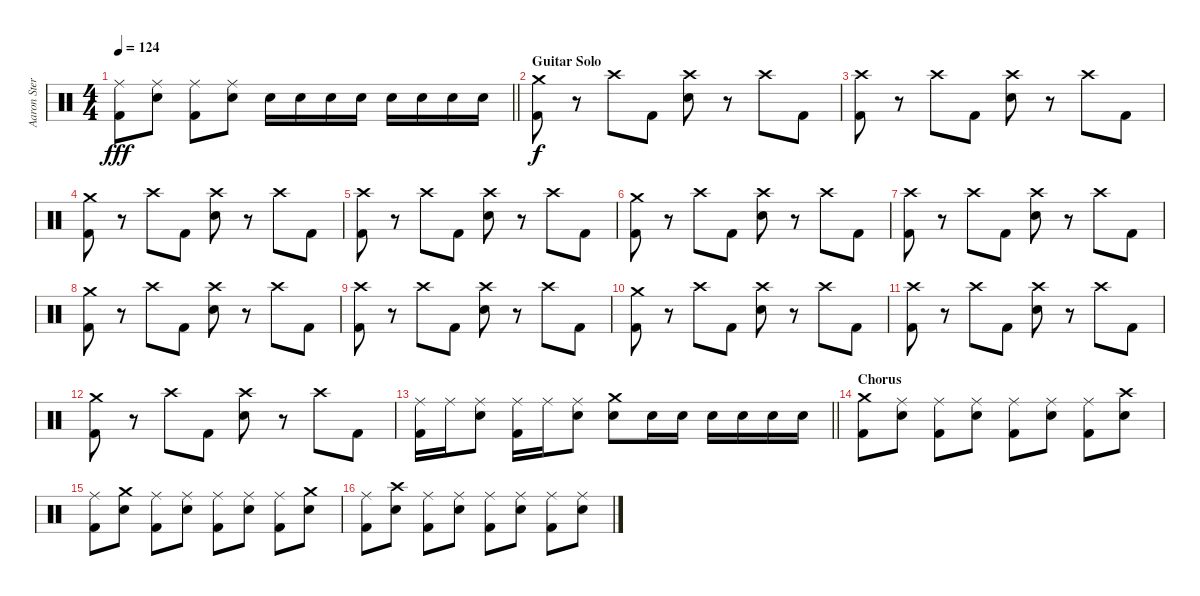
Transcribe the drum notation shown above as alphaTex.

\track ("Aaron Stern" "Aaron Ster") {instrument percussion}
\staff {score}
\articulation defaults
\ts (4 4)
\tempo 124
\clef neutral
\barLineRight lightlight
\ks c
("Ride (middle)" "Kick (hit) 2").8{dy fff} ("Ride (middle)" "Snare (hit) 2").8 ("Ride (middle)" "Kick (hit) 2").8 ("Ride (middle)" "Snare (hit) 2").8 "Snare (hit) 2".16 "Snare (hit) 2".16 "Snare (hit) 2".16 "Snare (hit) 2".16 "Snare (hit) 2".16 "Snare (hit) 2".16 "Snare (hit) 2".16 "Snare (hit) 2".16 |
\section ("" "Guitar Solo")
("Crash medium (hit)" "Kick (hit) 2").8{dy f} r.8 "Crash high (hit)".8 "Kick (hit) 2".8 ("Crash high (hit)" "Snare (hit) 2").8 r.8 "Crash high (hit)".8 "Kick (hit) 2".8 |
("Crash high (hit)" "Kick (hit) 2").8 r.8 "Crash high (hit)".8 "Kick (hit) 2".8 ("Crash high (hit)" "Snare (hit) 2").8 r.8 "Crash high (hit)".8 "Kick (hit) 2".8 |
("Crash medium (hit)" "Kick (hit) 2").8 r.8 "Crash high (hit)".8 "Kick (hit) 2".8 ("Crash high (hit)" "Snare (hit) 2").8 r.8 "Crash high (hit)".8 "Kick (hit) 2".8 |
("Crash high (hit)" "Kick (hit) 2").8 r.8 "Crash high (hit)".8 "Kick (hit) 2".8 ("Crash high (hit)" "Snare (hit) 2").8 r.8 "Crash high (hit)".8 "Kick (hit) 2".8 |
("Crash medium (hit)" "Kick (hit) 2").8 r.8 "Crash high (hit)".8 "Kick (hit) 2".8 ("Crash high (hit)" "Snare (hit) 2").8 r.8 "Crash high (hit)".8 "Kick (hit) 2".8 |
("Crash high (hit)" "Kick (hit) 2").8 r.8 "Crash high (hit)".8 "Kick (hit) 2".8 ("Crash high (hit)" "Snare (hit) 2").8 r.8 "Crash high (hit)".8 "Kick (hit) 2".8 |
("Crash medium (hit)" "Kick (hit) 2").8 r.8 "Crash high (hit)".8 "Kick (hit) 2".8 ("Crash high (hit)" "Snare (hit) 2").8 r.8 "Crash high (hit)".8 "Kick (hit) 2".8 |
("Crash high (hit)" "Kick (hit) 2").8 r.8 "Crash high (hit)".8 "Kick (hit) 2".8 ("Crash high (hit)" "Snare (hit) 2").8 r.8 "Crash high (hit)".8 "Kick (hit) 2".8 |
("Crash medium (hit)" "Kick (hit) 2").8 r.8 "Crash high (hit)".8 "Kick (hit) 2".8 ("Crash high (hit)" "Snare (hit) 2").8 r.8 "Crash high (hit)".8 "Kick (hit) 2".8 |
("Crash high (hit)" "Kick (hit) 2").8 r.8 "Crash high (hit)".8 "Kick (hit) 2".8 ("Crash high (hit)" "Snare (hit) 2").8 r.8 "Crash high (hit)".8 "Kick (hit) 2".8 |
("Crash medium (hit)" "Kick (hit) 2").8 r.8 "Crash high (hit)".8 "Kick (hit) 2".8 ("Crash high (hit)" "Snare (hit) 2").8 r.8 "Crash high (hit)".8 "Kick (hit) 2".8 |
\barLineRight lightlight
("Ride (middle)" "Kick (hit) 2").16 "Ride (middle)".16 ("Ride (middle)" "Snare (hit) 2").8 ("Ride (middle)" "Kick (hit) 2").16 "Ride (middle)".16 ("Ride (middle)" "Snare (hit) 2").8 ("Crash medium (hit)" "Snare (hit) 2").8 "Snare (hit) 2".16 "Snare (hit) 2".16 "Snare (hit) 2".16 "Snare (hit) 2".16 "Snare (hit) 2".16 "Snare (hit) 2".16 |
\section ("" "Chorus")
("Crash medium (hit)" "Kick (hit) 2").8 ("Ride (middle)" "Snare (hit) 2").8 ("Ride (middle)" "Kick (hit) 2").8 ("Ride (middle)" "Snare (hit) 2").8 ("Ride (middle)" "Kick (hit) 2").8 ("Ride (middle)" "Snare (hit) 2").8 ("Ride (middle)" "Kick (hit) 2").8 ("Crash high (hit)" "Snare (hit) 2").8 |
("Ride (middle)" "Kick (hit) 2").8 ("Crash medium (hit)" "Snare (hit) 2").8 ("Ride (middle)" "Kick (hit) 2").8 ("Ride (middle)" "Snare (hit) 2").8 ("Ride (middle)" "Kick (hit) 2").8 ("Ride (middle)" "Snare (hit) 2").8 ("Ride (middle)" "Kick (hit) 2").8 ("Crash medium (hit)" "Snare (hit) 2").8 |
("Ride (middle)" "Kick (hit) 2").8 ("Crash high (hit)" "Snare (hit) 2").8 ("Ride (middle)" "Kick (hit) 2").8 ("Ride (middle)" "Snare (hit) 2").8 ("Ride (middle)" "Kick (hit) 2").8 ("Ride (middle)" "Snare (hit) 2").8 ("Ride (middle)" "Kick (hit) 2").8 ("Ride (middle)" "Snare (hit) 2").8
